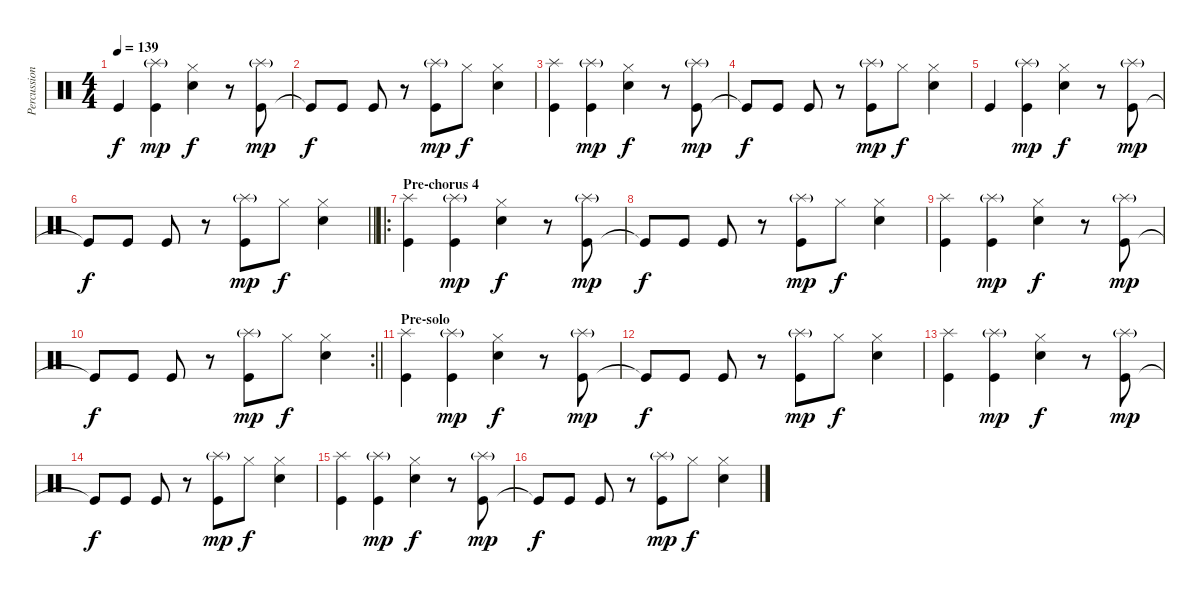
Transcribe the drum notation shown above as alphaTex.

\track ("Percussion" "Percussion") {instrument percussion}
\staff {score}
\articulation defaults
\ts (4 4)
\tempo 139
\clef neutral
\ks c "Kick (hit)".4{dy f}
("Kick (hit)" "Splash (hit)"{g}).4{dy mp} ("Snare (hit) 2" "Hi-Hat (closed)").4{dy f} r.8 ("Kick (hit)" "Splash (hit)"{g}).8{dy mp} |
"Kick (hit)"{t}.8{dy f} "Kick (hit)".8 "Kick (hit)".8 r.8 ("Kick (hit)" "Splash (hit)"{g}).8{dy mp} "Hi-Hat (closed)".8{dy f} ("Snare (hit) 2" "Hi-Hat (closed)").4 |
("Kick (hit)" "Splash (hit)").4 ("Kick (hit)" "Splash (hit)"{g}).4{dy mp} ("Snare (hit) 2" "Hi-Hat (closed)").4{dy f} r.8 ("Kick (hit)" "Splash (hit)"{g}).8{dy mp} |
"Kick (hit)"{t}.8{dy f} "Kick (hit)".8 "Kick (hit)".8 r.8 ("Kick (hit)" "Splash (hit)"{g}).8{dy mp} "Hi-Hat (closed)".8{dy f} ("Snare (hit) 2" "Hi-Hat (closed)").4 |
"Kick (hit)".4 ("Kick (hit)" "Splash (hit)"{g}).4{dy mp} ("Snare (hit) 2" "Hi-Hat (closed)").4{dy f} r.8 ("Kick (hit)" "Splash (hit)"{g}).8{dy mp} |
\barLineRight lightlight "Kick (hit)"{t}.8{dy f} "Kick (hit)".8 "Kick (hit)".8
r.8 ("Kick (hit)" "Splash (hit)"{g}).8{dy mp} "Hi-Hat (closed)".8{dy f} ("Snare (hit) 2" "Hi-Hat (closed)").4 |
\ro
\section ("" "Pre-chorus 4")
("Kick (hit)" "Splash (hit)").4 ("Kick (hit)" "Splash (hit)"{g}).4{dy mp} ("Snare (hit) 2" "Hi-Hat (closed)").4{dy f} r.8 ("Kick (hit)" "Splash (hit)"{g}).8{dy mp} |
"Kick (hit)"{t}.8{dy f} "Kick (hit)".8 "Kick (hit)".8 r.8 ("Kick (hit)" "Splash (hit)"{g}).8{dy mp} "Hi-Hat (closed)".8{dy f} ("Snare (hit) 2" "Hi-Hat (closed)").4 |
("Kick (hit)" "Splash (hit)").4 ("Kick (hit)" "Splash (hit)"{g}).4{dy mp} ("Snare (hit) 2" "Hi-Hat (closed)").4{dy f} r.8 ("Kick (hit)" "Splash (hit)"{g}).8{dy mp} |
\rc 2
\barLineRight lightlight "Kick (hit)"{t}.8{dy f} "Kick (hit)".8 "Kick (hit)".8
r.8 ("Kick (hit)" "Splash (hit)"{g}).8{dy mp} "Hi-Hat (closed)".8{dy f} ("Snare (hit) 2" "Hi-Hat (closed)").4 |
\section ("" "Pre-solo")
("Kick (hit)" "Splash (hit)").4 ("Kick (hit)" "Splash (hit)"{g}).4{dy mp} ("Snare (hit) 2" "Hi-Hat (closed)").4{dy f} r.8 ("Kick (hit)" "Splash (hit)"{g}).8{dy mp} |
"Kick (hit)"{t}.8{dy f} "Kick (hit)".8 "Kick (hit)".8 r.8 ("Kick (hit)" "Splash (hit)"{g}).8{dy mp} "Hi-Hat (closed)".8{dy f} ("Snare (hit) 2" "Hi-Hat (closed)").4 |
("Kick (hit)" "Splash (hit)").4 ("Kick (hit)" "Splash (hit)"{g}).4{dy mp} ("Snare (hit) 2" "Hi-Hat (closed)").4{dy f} r.8 ("Kick (hit)" "Splash (hit)"{g}).8{dy mp} |
"Kick (hit)"{t}.8{dy f} "Kick (hit)".8 "Kick (hit)".8 r.8 ("Kick (hit)" "Splash (hit)"{g}).8{dy mp} "Hi-Hat (closed)".8{dy f} ("Snare (hit) 2" "Hi-Hat (closed)").4 |
("Kick (hit)" "Splash (hit)").4 ("Kick (hit)" "Splash (hit)"{g}).4{dy mp} ("Snare (hit) 2" "Hi-Hat (closed)").4{dy f} r.8 ("Kick (hit)" "Splash (hit)"{g}).8{dy mp} |
"Kick (hit)"{t}.8{dy f} "Kick (hit)".8 "Kick (hit)".8 r.8 ("Kick (hit)" "Splash (hit)"{g}).8{dy mp} "Hi-Hat (closed)".8{dy f} ("Snare (hit) 2" "Hi-Hat (closed)").4
